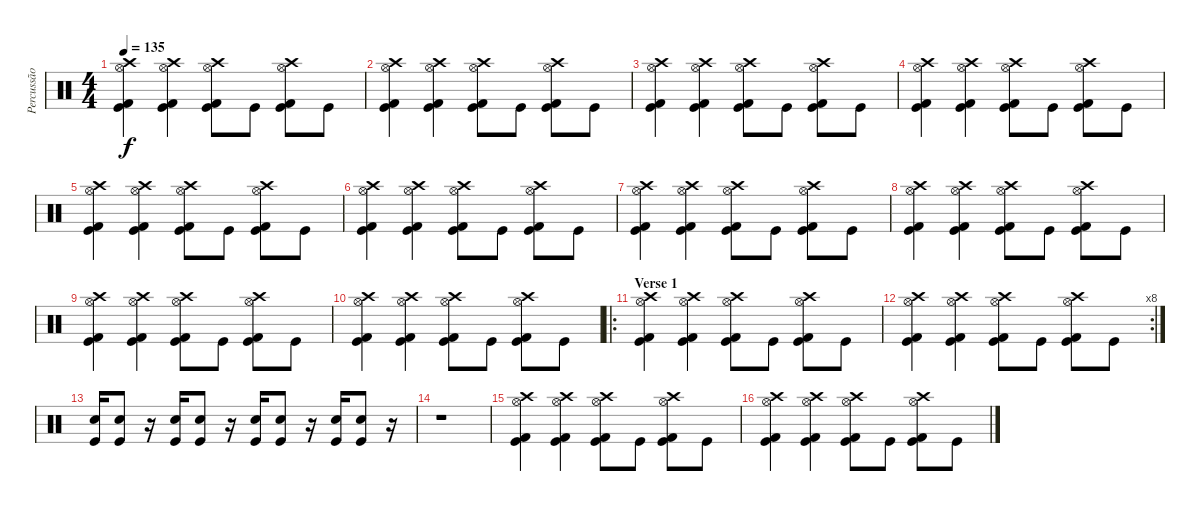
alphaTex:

\track ("Percussão" "Percussão") {instrument percussion}
\staff {score}
\articulation defaults
\ts (4 4)
\tempo 135
\clef neutral
\ks c
("Kick (hit)" "Hi-Hat (open)" "Kick (hit) 2" "Crash high (hit)").4{dy f} ("Kick (hit)" "Hi-Hat (open)" "Kick (hit) 2" "Crash high (hit)").4 ("Kick (hit)" "Hi-Hat (open)" "Kick (hit) 2" "Crash high (hit)").8 "Kick (hit)".8 ("Kick (hit)" "Hi-Hat (open)" "Kick (hit) 2" "Crash high (hit)").8 "Kick (hit)".8 |
("Kick (hit)" "Hi-Hat (open)" "Kick (hit) 2" "Crash high (hit)").4 ("Kick (hit)" "Hi-Hat (open)" "Kick (hit) 2" "Crash high (hit)").4 ("Kick (hit)" "Hi-Hat (open)" "Kick (hit) 2" "Crash high (hit)").8 "Kick (hit)".8 ("Kick (hit)" "Hi-Hat (open)" "Kick (hit) 2" "Crash high (hit)").8 "Kick (hit)".8 |
("Kick (hit)" "Hi-Hat (open)" "Kick (hit) 2" "Crash high (hit)").4 ("Kick (hit)" "Hi-Hat (open)" "Kick (hit) 2" "Crash high (hit)").4 ("Kick (hit)" "Hi-Hat (open)" "Kick (hit) 2" "Crash high (hit)").8 "Kick (hit)".8 ("Kick (hit)" "Hi-Hat (open)" "Kick (hit) 2" "Crash high (hit)").8 "Kick (hit)".8 |
("Kick (hit)" "Hi-Hat (open)" "Kick (hit) 2" "Crash high (hit)").4 ("Kick (hit)" "Hi-Hat (open)" "Kick (hit) 2" "Crash high (hit)").4 ("Kick (hit)" "Hi-Hat (open)" "Kick (hit) 2" "Crash high (hit)").8 "Kick (hit)".8 ("Kick (hit)" "Hi-Hat (open)" "Kick (hit) 2" "Crash high (hit)").8 "Kick (hit)".8 |
("Kick (hit)" "Hi-Hat (open)" "Kick (hit) 2" "Crash high (hit)").4 ("Kick (hit)" "Hi-Hat (open)" "Kick (hit) 2" "Crash high (hit)").4 ("Kick (hit)" "Hi-Hat (open)" "Kick (hit) 2" "Crash high (hit)").8 "Kick (hit)".8 ("Kick (hit)" "Hi-Hat (open)" "Kick (hit) 2" "Crash high (hit)").8 "Kick (hit)".8 |
("Kick (hit)" "Hi-Hat (open)" "Kick (hit) 2" "Crash high (hit)").4 ("Kick (hit)" "Hi-Hat (open)" "Kick (hit) 2" "Crash high (hit)").4 ("Kick (hit)" "Hi-Hat (open)" "Kick (hit) 2" "Crash high (hit)").8 "Kick (hit)".8 ("Kick (hit)" "Hi-Hat (open)" "Kick (hit) 2" "Crash high (hit)").8 "Kick (hit)".8 |
("Kick (hit)" "Hi-Hat (open)" "Kick (hit) 2" "Crash high (hit)").4 ("Kick (hit)" "Hi-Hat (open)" "Kick (hit) 2" "Crash high (hit)").4 ("Kick (hit)" "Hi-Hat (open)" "Kick (hit) 2" "Crash high (hit)").8 "Kick (hit)".8 ("Kick (hit)" "Hi-Hat (open)" "Kick (hit) 2" "Crash high (hit)").8 "Kick (hit)".8 |
("Kick (hit)" "Hi-Hat (open)" "Kick (hit) 2" "Crash high (hit)").4 ("Kick (hit)" "Hi-Hat (open)" "Kick (hit) 2" "Crash high (hit)").4 ("Kick (hit)" "Hi-Hat (open)" "Kick (hit) 2" "Crash high (hit)").8 "Kick (hit)".8 ("Kick (hit)" "Hi-Hat (open)" "Kick (hit) 2" "Crash high (hit)").8 "Kick (hit)".8 |
("Kick (hit)" "Hi-Hat (open)" "Kick (hit) 2" "Crash high (hit)").4 ("Kick (hit)" "Hi-Hat (open)" "Kick (hit) 2" "Crash high (hit)").4 ("Kick (hit)" "Hi-Hat (open)" "Kick (hit) 2" "Crash high (hit)").8 "Kick (hit)".8 ("Kick (hit)" "Hi-Hat (open)" "Kick (hit) 2" "Crash high (hit)").8 "Kick (hit)".8 |
("Kick (hit)" "Hi-Hat (open)" "Kick (hit) 2" "Crash high (hit)").4 ("Kick (hit)" "Hi-Hat (open)" "Kick (hit) 2" "Crash high (hit)").4 ("Kick (hit)" "Hi-Hat (open)" "Kick (hit) 2" "Crash high (hit)").8 "Kick (hit)".8 ("Kick (hit)" "Hi-Hat (open)" "Kick (hit) 2" "Crash high (hit)").8 "Kick (hit)".8 |
\ro
\section ("" "Verse 1")
("Kick (hit)" "Hi-Hat (open)" "Kick (hit) 2" "Crash high (hit)").4 ("Kick (hit)" "Hi-Hat (open)" "Kick (hit) 2" "Crash high (hit)").4 ("Kick (hit)" "Hi-Hat (open)" "Kick (hit) 2" "Crash high (hit)").8 "Kick (hit)".8 ("Kick (hit)" "Hi-Hat (open)" "Kick (hit) 2" "Crash high (hit)").8 "Kick (hit)".8 |
\rc 8
("Kick (hit)" "Hi-Hat (open)" "Kick (hit) 2" "Crash high (hit)").4 ("Kick (hit)" "Hi-Hat (open)" "Kick (hit) 2" "Crash high (hit)").4 ("Kick (hit)" "Hi-Hat (open)" "Kick (hit) 2" "Crash high (hit)").8 "Kick (hit)".8 ("Kick (hit)" "Hi-Hat (open)" "Kick (hit) 2" "Crash high (hit)").8 "Kick (hit)".8 |
("Kick (hit)" "Electric Snare (hit)").16 ("Kick (hit)" "Electric Snare (hit)").8 r.16 ("Kick (hit)" "Electric Snare (hit)").16 ("Kick (hit)" "Electric Snare (hit)").8 r.16 ("Kick (hit)" "Electric Snare (hit)").16 ("Kick (hit)" "Electric Snare (hit)").8 r.16 ("Kick (hit)" "Electric Snare (hit)").16 ("Kick (hit)" "Electric Snare (hit)").8 r.16 |
r.1 |
("Kick (hit)" "Hi-Hat (open)" "Kick (hit) 2" "Crash high (hit)").4 ("Kick (hit)" "Hi-Hat (open)" "Kick (hit) 2" "Crash high (hit)").4 ("Kick (hit)" "Hi-Hat (open)" "Kick (hit) 2" "Crash high (hit)").8 "Kick (hit)".8 ("Kick (hit)" "Hi-Hat (open)" "Kick (hit) 2" "Crash high (hit)").8 "Kick (hit)".8 |
("Kick (hit)" "Hi-Hat (open)" "Kick (hit) 2" "Crash high (hit)").4 ("Kick (hit)" "Hi-Hat (open)" "Kick (hit) 2" "Crash high (hit)").4 ("Kick (hit)" "Hi-Hat (open)" "Kick (hit) 2" "Crash high (hit)").8 "Kick (hit)".8 ("Kick (hit)" "Hi-Hat (open)" "Kick (hit) 2" "Crash high (hit)").8 "Kick (hit)".8
